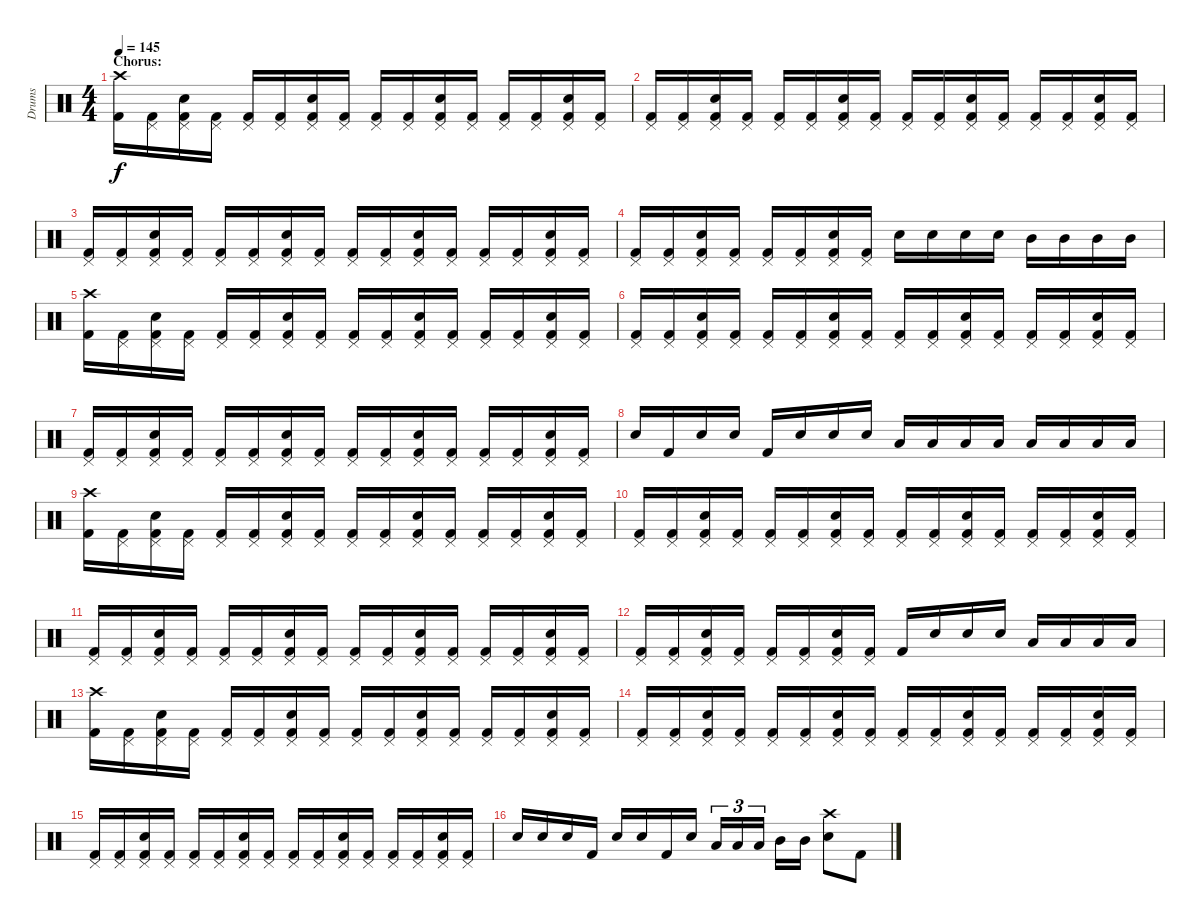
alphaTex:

\track ("Drums" "Drums") {instrument percussion}
\staff {score}
\articulation defaults
\ts (4 4)
\section ("" "Chorus:")
\tempo 145
\clef neutral
\ks c
("Crash high (hit)" "Kick (hit) 2").16{dy f} ("Pedal Hi-Hat (hit)" "Kick (hit) 2").16 ("Pedal Hi-Hat (hit)" "Electric Snare (hit)" "Kick (hit) 2").16 ("Pedal Hi-Hat (hit)" "Kick (hit) 2").16 ("Pedal Hi-Hat (hit)" "Kick (hit) 2").16 ("Pedal Hi-Hat (hit)" "Kick (hit) 2").16 ("Pedal Hi-Hat (hit)" "Electric Snare (hit)" "Kick (hit) 2").16 ("Pedal Hi-Hat (hit)" "Kick (hit) 2").16 ("Pedal Hi-Hat (hit)" "Kick (hit) 2").16 ("Pedal Hi-Hat (hit)" "Kick (hit) 2").16 ("Pedal Hi-Hat (hit)" "Electric Snare (hit)" "Kick (hit) 2").16 ("Pedal Hi-Hat (hit)" "Kick (hit) 2").16 ("Pedal Hi-Hat (hit)" "Kick (hit) 2").16 ("Pedal Hi-Hat (hit)" "Kick (hit) 2").16 ("Pedal Hi-Hat (hit)" "Electric Snare (hit)" "Kick (hit) 2").16 ("Pedal Hi-Hat (hit)" "Kick (hit) 2").16 |
("Pedal Hi-Hat (hit)" "Kick (hit) 2").16 ("Pedal Hi-Hat (hit)" "Kick (hit) 2").16 ("Pedal Hi-Hat (hit)" "Electric Snare (hit)" "Kick (hit) 2").16 ("Pedal Hi-Hat (hit)" "Kick (hit) 2").16 ("Pedal Hi-Hat (hit)" "Kick (hit) 2").16 ("Pedal Hi-Hat (hit)" "Kick (hit) 2").16 ("Pedal Hi-Hat (hit)" "Electric Snare (hit)" "Kick (hit) 2").16 ("Pedal Hi-Hat (hit)" "Kick (hit) 2").16 ("Pedal Hi-Hat (hit)" "Kick (hit) 2").16 ("Pedal Hi-Hat (hit)" "Kick (hit) 2").16 ("Pedal Hi-Hat (hit)" "Electric Snare (hit)" "Kick (hit) 2").16 ("Pedal Hi-Hat (hit)" "Kick (hit) 2").16 ("Pedal Hi-Hat (hit)" "Kick (hit) 2").16 ("Pedal Hi-Hat (hit)" "Kick (hit) 2").16 ("Pedal Hi-Hat (hit)" "Electric Snare (hit)" "Kick (hit) 2").16 ("Pedal Hi-Hat (hit)" "Kick (hit) 2").16 |
("Pedal Hi-Hat (hit)" "Kick (hit) 2").16 ("Pedal Hi-Hat (hit)" "Kick (hit) 2").16 ("Pedal Hi-Hat (hit)" "Electric Snare (hit)" "Kick (hit) 2").16 ("Pedal Hi-Hat (hit)" "Kick (hit) 2").16 ("Pedal Hi-Hat (hit)" "Kick (hit) 2").16 ("Pedal Hi-Hat (hit)" "Kick (hit) 2").16 ("Pedal Hi-Hat (hit)" "Electric Snare (hit)" "Kick (hit) 2").16 ("Pedal Hi-Hat (hit)" "Kick (hit) 2").16 ("Pedal Hi-Hat (hit)" "Kick (hit) 2").16 ("Pedal Hi-Hat (hit)" "Kick (hit) 2").16 ("Pedal Hi-Hat (hit)" "Electric Snare (hit)" "Kick (hit) 2").16 ("Pedal Hi-Hat (hit)" "Kick (hit) 2").16 ("Pedal Hi-Hat (hit)" "Kick (hit) 2").16 ("Pedal Hi-Hat (hit)" "Kick (hit) 2").16 ("Pedal Hi-Hat (hit)" "Electric Snare (hit)" "Kick (hit) 2").16 ("Pedal Hi-Hat (hit)" "Kick (hit) 2").16 |
("Pedal Hi-Hat (hit)" "Kick (hit) 2").16 ("Pedal Hi-Hat (hit)" "Kick (hit) 2").16 ("Pedal Hi-Hat (hit)" "Electric Snare (hit)" "Kick (hit) 2").16 ("Pedal Hi-Hat (hit)" "Kick (hit) 2").16 ("Pedal Hi-Hat (hit)" "Kick (hit) 2").16 ("Pedal Hi-Hat (hit)" "Kick (hit) 2").16 ("Pedal Hi-Hat (hit)" "Electric Snare (hit)" "Kick (hit) 2").16 ("Pedal Hi-Hat (hit)" "Kick (hit) 2").16 "Electric Snare (hit)".16 "Electric Snare (hit)".16 "Electric Snare (hit)".16 "Electric Snare (hit)".16 "Mid Tom (hit)".16 "Mid Tom (hit)".16 "Mid Tom (hit)".16 "Mid Tom (hit)".16 |
("Crash high (hit)" "Kick (hit) 2").16 ("Pedal Hi-Hat (hit)" "Kick (hit) 2").16 ("Pedal Hi-Hat (hit)" "Electric Snare (hit)" "Kick (hit) 2").16 ("Pedal Hi-Hat (hit)" "Kick (hit) 2").16 ("Pedal Hi-Hat (hit)" "Kick (hit) 2").16 ("Pedal Hi-Hat (hit)" "Kick (hit) 2").16 ("Pedal Hi-Hat (hit)" "Electric Snare (hit)" "Kick (hit) 2").16 ("Pedal Hi-Hat (hit)" "Kick (hit) 2").16 ("Pedal Hi-Hat (hit)" "Kick (hit) 2").16 ("Pedal Hi-Hat (hit)" "Kick (hit) 2").16 ("Pedal Hi-Hat (hit)" "Electric Snare (hit)" "Kick (hit) 2").16 ("Pedal Hi-Hat (hit)" "Kick (hit) 2").16 ("Pedal Hi-Hat (hit)" "Kick (hit) 2").16 ("Pedal Hi-Hat (hit)" "Kick (hit) 2").16 ("Pedal Hi-Hat (hit)" "Electric Snare (hit)" "Kick (hit) 2").16 ("Pedal Hi-Hat (hit)" "Kick (hit) 2").16 |
("Pedal Hi-Hat (hit)" "Kick (hit) 2").16 ("Pedal Hi-Hat (hit)" "Kick (hit) 2").16 ("Pedal Hi-Hat (hit)" "Electric Snare (hit)" "Kick (hit) 2").16 ("Pedal Hi-Hat (hit)" "Kick (hit) 2").16 ("Pedal Hi-Hat (hit)" "Kick (hit) 2").16 ("Pedal Hi-Hat (hit)" "Kick (hit) 2").16 ("Pedal Hi-Hat (hit)" "Electric Snare (hit)" "Kick (hit) 2").16 ("Pedal Hi-Hat (hit)" "Kick (hit) 2").16 ("Pedal Hi-Hat (hit)" "Kick (hit) 2").16 ("Pedal Hi-Hat (hit)" "Kick (hit) 2").16 ("Pedal Hi-Hat (hit)" "Electric Snare (hit)" "Kick (hit) 2").16 ("Pedal Hi-Hat (hit)" "Kick (hit) 2").16 ("Pedal Hi-Hat (hit)" "Kick (hit) 2").16 ("Pedal Hi-Hat (hit)" "Kick (hit) 2").16 ("Pedal Hi-Hat (hit)" "Electric Snare (hit)" "Kick (hit) 2").16 ("Pedal Hi-Hat (hit)" "Kick (hit) 2").16 |
("Pedal Hi-Hat (hit)" "Kick (hit) 2").16 ("Pedal Hi-Hat (hit)" "Kick (hit) 2").16 ("Pedal Hi-Hat (hit)" "Electric Snare (hit)" "Kick (hit) 2").16 ("Pedal Hi-Hat (hit)" "Kick (hit) 2").16 ("Pedal Hi-Hat (hit)" "Kick (hit) 2").16 ("Pedal Hi-Hat (hit)" "Kick (hit) 2").16 ("Pedal Hi-Hat (hit)" "Electric Snare (hit)" "Kick (hit) 2").16 ("Pedal Hi-Hat (hit)" "Kick (hit) 2").16 ("Pedal Hi-Hat (hit)" "Kick (hit) 2").16 ("Pedal Hi-Hat (hit)" "Kick (hit) 2").16 ("Pedal Hi-Hat (hit)" "Electric Snare (hit)" "Kick (hit) 2").16 ("Pedal Hi-Hat (hit)" "Kick (hit) 2").16 ("Pedal Hi-Hat (hit)" "Kick (hit) 2").16 ("Pedal Hi-Hat (hit)" "Kick (hit) 2").16 ("Pedal Hi-Hat (hit)" "Electric Snare (hit)" "Kick (hit) 2").16 ("Pedal Hi-Hat (hit)" "Kick (hit) 2").16 |
"Electric Snare (hit)".16 "Kick (hit) 2".16 "Electric Snare (hit)".16 "Electric Snare (hit)".16 "Kick (hit) 2".16 "Electric Snare (hit)".16 "Electric Snare (hit)".16 "Electric Snare (hit)".16 "Low Tom (hit)".16 "Low Tom (hit)".16 "Low Tom (hit)".16 "Low Tom (hit)".16 "Low Tom (hit)".16 "Low Tom (hit)".16 "Low Tom (hit)".16 "Low Tom (hit)".16 |
("Crash high (hit)" "Kick (hit) 2").16 ("Pedal Hi-Hat (hit)" "Kick (hit) 2").16 ("Pedal Hi-Hat (hit)" "Electric Snare (hit)" "Kick (hit) 2").16 ("Pedal Hi-Hat (hit)" "Kick (hit) 2").16 ("Pedal Hi-Hat (hit)" "Kick (hit) 2").16 ("Pedal Hi-Hat (hit)" "Kick (hit) 2").16 ("Pedal Hi-Hat (hit)" "Electric Snare (hit)" "Kick (hit) 2").16 ("Pedal Hi-Hat (hit)" "Kick (hit) 2").16 ("Pedal Hi-Hat (hit)" "Kick (hit) 2").16 ("Pedal Hi-Hat (hit)" "Kick (hit) 2").16 ("Pedal Hi-Hat (hit)" "Electric Snare (hit)" "Kick (hit) 2").16 ("Pedal Hi-Hat (hit)" "Kick (hit) 2").16 ("Pedal Hi-Hat (hit)" "Kick (hit) 2").16 ("Pedal Hi-Hat (hit)" "Kick (hit) 2").16 ("Pedal Hi-Hat (hit)" "Electric Snare (hit)" "Kick (hit) 2").16 ("Pedal Hi-Hat (hit)" "Kick (hit) 2").16 |
("Pedal Hi-Hat (hit)" "Kick (hit) 2").16 ("Pedal Hi-Hat (hit)" "Kick (hit) 2").16 ("Pedal Hi-Hat (hit)" "Electric Snare (hit)" "Kick (hit) 2").16 ("Pedal Hi-Hat (hit)" "Kick (hit) 2").16 ("Pedal Hi-Hat (hit)" "Kick (hit) 2").16 ("Pedal Hi-Hat (hit)" "Kick (hit) 2").16 ("Pedal Hi-Hat (hit)" "Electric Snare (hit)" "Kick (hit) 2").16 ("Pedal Hi-Hat (hit)" "Kick (hit) 2").16 ("Pedal Hi-Hat (hit)" "Kick (hit) 2").16 ("Pedal Hi-Hat (hit)" "Kick (hit) 2").16 ("Pedal Hi-Hat (hit)" "Electric Snare (hit)" "Kick (hit) 2").16 ("Pedal Hi-Hat (hit)" "Kick (hit) 2").16 ("Pedal Hi-Hat (hit)" "Kick (hit) 2").16 ("Pedal Hi-Hat (hit)" "Kick (hit) 2").16 ("Pedal Hi-Hat (hit)" "Electric Snare (hit)" "Kick (hit) 2").16 ("Pedal Hi-Hat (hit)" "Kick (hit) 2").16 |
("Pedal Hi-Hat (hit)" "Kick (hit) 2").16 ("Pedal Hi-Hat (hit)" "Kick (hit) 2").16 ("Pedal Hi-Hat (hit)" "Electric Snare (hit)" "Kick (hit) 2").16 ("Pedal Hi-Hat (hit)" "Kick (hit) 2").16 ("Pedal Hi-Hat (hit)" "Kick (hit) 2").16 ("Pedal Hi-Hat (hit)" "Kick (hit) 2").16 ("Pedal Hi-Hat (hit)" "Electric Snare (hit)" "Kick (hit) 2").16 ("Pedal Hi-Hat (hit)" "Kick (hit) 2").16 ("Pedal Hi-Hat (hit)" "Kick (hit) 2").16 ("Pedal Hi-Hat (hit)" "Kick (hit) 2").16 ("Pedal Hi-Hat (hit)" "Electric Snare (hit)" "Kick (hit) 2").16 ("Pedal Hi-Hat (hit)" "Kick (hit) 2").16 ("Pedal Hi-Hat (hit)" "Kick (hit) 2").16 ("Pedal Hi-Hat (hit)" "Kick (hit) 2").16 ("Pedal Hi-Hat (hit)" "Electric Snare (hit)" "Kick (hit) 2").16 ("Pedal Hi-Hat (hit)" "Kick (hit) 2").16 |
("Pedal Hi-Hat (hit)" "Kick (hit) 2").16 ("Pedal Hi-Hat (hit)" "Kick (hit) 2").16 ("Pedal Hi-Hat (hit)" "Electric Snare (hit)" "Kick (hit) 2").16 ("Pedal Hi-Hat (hit)" "Kick (hit) 2").16 ("Pedal Hi-Hat (hit)" "Kick (hit) 2").16 ("Pedal Hi-Hat (hit)" "Kick (hit) 2").16 ("Pedal Hi-Hat (hit)" "Electric Snare (hit)" "Kick (hit) 2").16 ("Pedal Hi-Hat (hit)" "Kick (hit) 2").16 "Kick (hit) 2".16 "Electric Snare (hit)".16 "Electric Snare (hit)".16 "Electric Snare (hit)".16 "Low Tom (hit)".16 "Low Tom (hit)".16 "Low Tom (hit)".16 "Low Tom (hit)".16 |
("Crash high (hit)" "Kick (hit) 2").16 ("Pedal Hi-Hat (hit)" "Kick (hit) 2").16 ("Pedal Hi-Hat (hit)" "Electric Snare (hit)" "Kick (hit) 2").16 ("Pedal Hi-Hat (hit)" "Kick (hit) 2").16 ("Pedal Hi-Hat (hit)" "Kick (hit) 2").16 ("Pedal Hi-Hat (hit)" "Kick (hit) 2").16 ("Pedal Hi-Hat (hit)" "Electric Snare (hit)" "Kick (hit) 2").16 ("Pedal Hi-Hat (hit)" "Kick (hit) 2").16 ("Pedal Hi-Hat (hit)" "Kick (hit) 2").16 ("Pedal Hi-Hat (hit)" "Kick (hit) 2").16 ("Pedal Hi-Hat (hit)" "Electric Snare (hit)" "Kick (hit) 2").16 ("Pedal Hi-Hat (hit)" "Kick (hit) 2").16 ("Pedal Hi-Hat (hit)" "Kick (hit) 2").16 ("Pedal Hi-Hat (hit)" "Kick (hit) 2").16 ("Pedal Hi-Hat (hit)" "Electric Snare (hit)" "Kick (hit) 2").16 ("Pedal Hi-Hat (hit)" "Kick (hit) 2").16 |
("Pedal Hi-Hat (hit)" "Kick (hit) 2").16 ("Pedal Hi-Hat (hit)" "Kick (hit) 2").16 ("Pedal Hi-Hat (hit)" "Electric Snare (hit)" "Kick (hit) 2").16 ("Pedal Hi-Hat (hit)" "Kick (hit) 2").16 ("Pedal Hi-Hat (hit)" "Kick (hit) 2").16 ("Pedal Hi-Hat (hit)" "Kick (hit) 2").16 ("Pedal Hi-Hat (hit)" "Electric Snare (hit)" "Kick (hit) 2").16 ("Pedal Hi-Hat (hit)" "Kick (hit) 2").16 ("Pedal Hi-Hat (hit)" "Kick (hit) 2").16 ("Pedal Hi-Hat (hit)" "Kick (hit) 2").16 ("Pedal Hi-Hat (hit)" "Electric Snare (hit)" "Kick (hit) 2").16 ("Pedal Hi-Hat (hit)" "Kick (hit) 2").16 ("Pedal Hi-Hat (hit)" "Kick (hit) 2").16 ("Pedal Hi-Hat (hit)" "Kick (hit) 2").16 ("Pedal Hi-Hat (hit)" "Electric Snare (hit)" "Kick (hit) 2").16 ("Pedal Hi-Hat (hit)" "Kick (hit) 2").16 |
("Pedal Hi-Hat (hit)" "Kick (hit) 2").16 ("Pedal Hi-Hat (hit)" "Kick (hit) 2").16 ("Pedal Hi-Hat (hit)" "Electric Snare (hit)" "Kick (hit) 2").16 ("Pedal Hi-Hat (hit)" "Kick (hit) 2").16 ("Pedal Hi-Hat (hit)" "Kick (hit) 2").16 ("Pedal Hi-Hat (hit)" "Kick (hit) 2").16 ("Pedal Hi-Hat (hit)" "Electric Snare (hit)" "Kick (hit) 2").16 ("Pedal Hi-Hat (hit)" "Kick (hit) 2").16 ("Pedal Hi-Hat (hit)" "Kick (hit) 2").16 ("Pedal Hi-Hat (hit)" "Kick (hit) 2").16 ("Pedal Hi-Hat (hit)" "Electric Snare (hit)" "Kick (hit) 2").16 ("Pedal Hi-Hat (hit)" "Kick (hit) 2").16 ("Pedal Hi-Hat (hit)" "Kick (hit) 2").16 ("Pedal Hi-Hat (hit)" "Kick (hit) 2").16 ("Pedal Hi-Hat (hit)" "Electric Snare (hit)" "Kick (hit) 2").16 ("Pedal Hi-Hat (hit)" "Kick (hit) 2").16 |
"Electric Snare (hit)".16 "Electric Snare (hit)".16 "Electric Snare (hit)".16 "Kick (hit) 2".16 "Electric Snare (hit)".16 "Electric Snare (hit)".16 "Kick (hit) 2".16 "Electric Snare (hit)".16 "Low Tom (hit)".16{tu (3 2)} "Low Tom (hit)".16{tu (3 2)} "Low Tom (hit)".16{tu (3 2)} "Mid Tom (hit)".16 "Mid Tom (hit)".16 ("Crash high (hit)" "Electric Snare (hit)").8 "Kick (hit) 2".8
